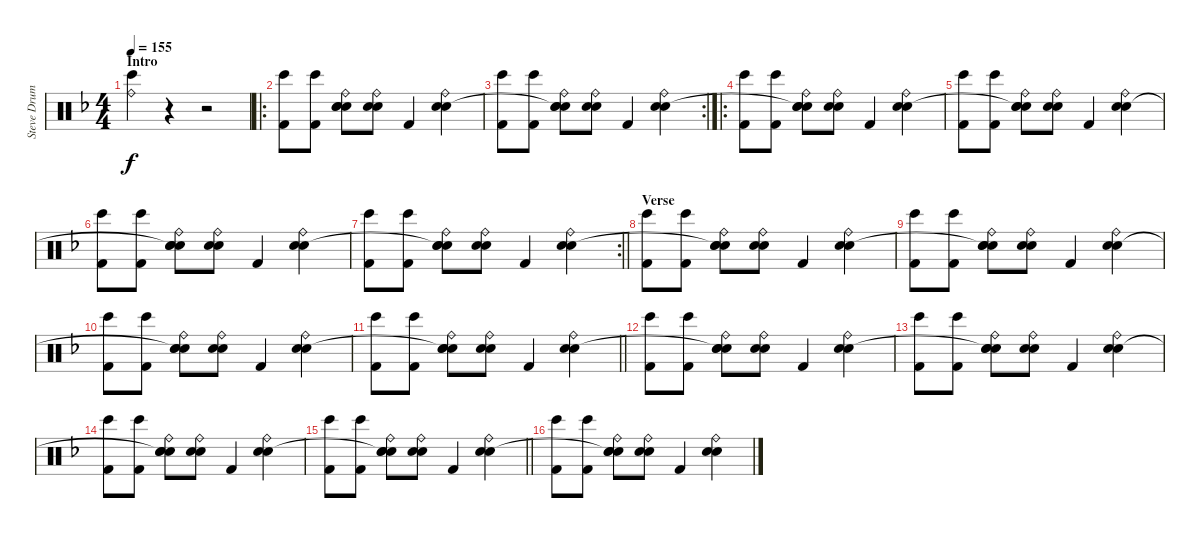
\track ("Steve Drums" "Steve Drum") {instrument percussion}
\staff {score}
\articulation defaults
\ts (4 4)
\section ("" "Intro")
\tempo 155
\clef neutral
\ks f
("Bongo High (hit)" "Ride (bell)").4{dy f} r.4 r.2 |
\ro
("Bongo High (hit)" "Kick (hit) 2").8 ("Bongo High (hit)" "Kick (hit) 2").8 ("Ride (bell)" "Snare (hit) 2" "Snare (hit)" "Electric Snare (hit)").8 ("Ride (bell)" "Snare (hit) 2" "Electric Snare (hit)").8 "Kick (hit) 2".4 ("Ride (bell)" "Snare (hit) 2" "Electric Snare (hit)").4 |
\rc 2
("Bongo High (hit)" "Kick (hit) 2").8 ("Bongo High (hit)" "Kick (hit) 2").8 ("Ride (bell)" "Snare (hit) 2" "Snare (hit)"{t} "Electric Snare (hit)").8 ("Ride (bell)" "Snare (hit) 2" "Electric Snare (hit)").8 "Kick (hit) 2".4 ("Ride (bell)" "Snare (hit) 2" "Electric Snare (hit)").4 |
\ro
("Bongo High (hit)" "Kick (hit) 2").8 ("Bongo High (hit)" "Kick (hit) 2").8 ("Ride (bell)" "Snare (hit) 2" "Snare (hit)"{t} "Electric Snare (hit)").8 ("Ride (bell)" "Snare (hit) 2" "Electric Snare (hit)").8 "Kick (hit) 2".4 ("Ride (bell)" "Snare (hit) 2" "Electric Snare (hit)").4 |
("Bongo High (hit)" "Kick (hit) 2").8 ("Bongo High (hit)" "Kick (hit) 2").8 ("Ride (bell)" "Snare (hit) 2" "Snare (hit)"{t} "Electric Snare (hit)").8 ("Ride (bell)" "Snare (hit) 2" "Electric Snare (hit)").8 "Kick (hit) 2".4 ("Ride (bell)" "Snare (hit) 2" "Electric Snare (hit)").4 |
("Bongo High (hit)" "Kick (hit) 2").8 ("Bongo High (hit)" "Kick (hit) 2").8 ("Ride (bell)" "Snare (hit) 2" "Snare (hit)"{t} "Electric Snare (hit)").8 ("Ride (bell)" "Snare (hit) 2" "Electric Snare (hit)").8 "Kick (hit) 2".4 ("Ride (bell)" "Snare (hit) 2" "Electric Snare (hit)").4 |
\rc 2
\barLineRight lightlight
("Bongo High (hit)" "Kick (hit) 2").8 ("Bongo High (hit)" "Kick (hit) 2").8 ("Ride (bell)" "Snare (hit) 2" "Snare (hit)"{t} "Electric Snare (hit)").8 ("Ride (bell)" "Snare (hit) 2" "Electric Snare (hit)").8 "Kick (hit) 2".4 ("Ride (bell)" "Snare (hit) 2" "Electric Snare (hit)").4 |
\section ("" "Verse")
("Bongo High (hit)" "Kick (hit) 2").8 ("Bongo High (hit)" "Kick (hit) 2").8 ("Ride (bell)" "Snare (hit) 2" "Snare (hit)"{t} "Electric Snare (hit)").8 ("Ride (bell)" "Snare (hit) 2" "Electric Snare (hit)").8 "Kick (hit) 2".4 ("Ride (bell)" "Snare (hit) 2" "Electric Snare (hit)").4 |
("Bongo High (hit)" "Kick (hit) 2").8 ("Bongo High (hit)" "Kick (hit) 2").8 ("Ride (bell)" "Snare (hit) 2" "Snare (hit)"{t} "Electric Snare (hit)").8 ("Ride (bell)" "Snare (hit) 2" "Electric Snare (hit)").8 "Kick (hit) 2".4 ("Ride (bell)" "Snare (hit) 2" "Electric Snare (hit)").4 |
("Bongo High (hit)" "Kick (hit) 2").8 ("Bongo High (hit)" "Kick (hit) 2").8 ("Ride (bell)" "Snare (hit) 2" "Snare (hit)"{t} "Electric Snare (hit)").8 ("Ride (bell)" "Snare (hit) 2" "Electric Snare (hit)").8 "Kick (hit) 2".4 ("Ride (bell)" "Snare (hit) 2" "Electric Snare (hit)").4 |
\barLineRight lightlight
("Bongo High (hit)" "Kick (hit) 2").8 ("Bongo High (hit)" "Kick (hit) 2").8 ("Ride (bell)" "Snare (hit) 2" "Snare (hit)"{t} "Electric Snare (hit)").8 ("Ride (bell)" "Snare (hit) 2" "Electric Snare (hit)").8 "Kick (hit) 2".4 ("Ride (bell)" "Snare (hit) 2" "Electric Snare (hit)").4 |
("Bongo High (hit)" "Kick (hit) 2").8 ("Bongo High (hit)" "Kick (hit) 2").8 ("Ride (bell)" "Snare (hit) 2" "Snare (hit)"{t} "Electric Snare (hit)").8 ("Ride (bell)" "Snare (hit) 2" "Electric Snare (hit)").8 "Kick (hit) 2".4 ("Ride (bell)" "Snare (hit) 2" "Electric Snare (hit)").4 |
("Bongo High (hit)" "Kick (hit) 2").8 ("Bongo High (hit)" "Kick (hit) 2").8 ("Ride (bell)" "Snare (hit) 2" "Snare (hit)"{t} "Electric Snare (hit)").8 ("Ride (bell)" "Snare (hit) 2" "Electric Snare (hit)").8 "Kick (hit) 2".4 ("Ride (bell)" "Snare (hit) 2" "Electric Snare (hit)").4 |
("Bongo High (hit)" "Kick (hit) 2").8 ("Bongo High (hit)" "Kick (hit) 2").8 ("Ride (bell)" "Snare (hit) 2" "Snare (hit)"{t} "Electric Snare (hit)").8 ("Ride (bell)" "Snare (hit) 2" "Electric Snare (hit)").8 "Kick (hit) 2".4 ("Ride (bell)" "Snare (hit) 2" "Electric Snare (hit)").4 |
\barLineRight lightlight
("Bongo High (hit)" "Kick (hit) 2").8 ("Bongo High (hit)" "Kick (hit) 2").8 ("Ride (bell)" "Snare (hit) 2" "Snare (hit)"{t} "Electric Snare (hit)").8 ("Ride (bell)" "Snare (hit) 2" "Electric Snare (hit)").8 "Kick (hit) 2".4 ("Ride (bell)" "Snare (hit) 2" "Electric Snare (hit)").4 |
("Bongo High (hit)" "Kick (hit) 2").8 ("Bongo High (hit)" "Kick (hit) 2").8 ("Ride (bell)" "Snare (hit) 2" "Snare (hit)"{t} "Electric Snare (hit)").8 ("Ride (bell)" "Snare (hit) 2" "Electric Snare (hit)").8 "Kick (hit) 2".4 ("Ride (bell)" "Snare (hit) 2" "Electric Snare (hit)").4
